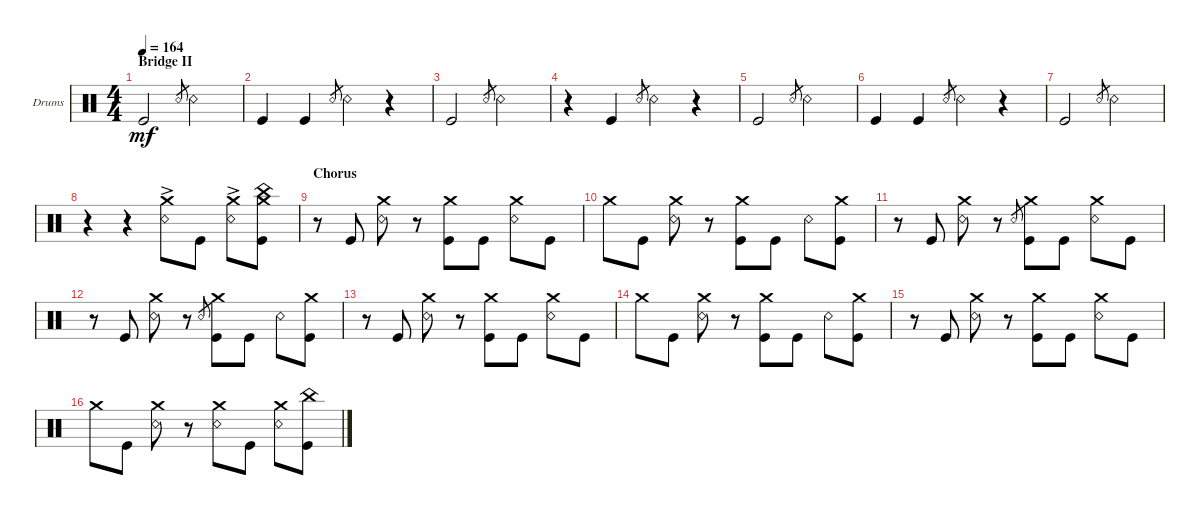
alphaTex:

\defaultSystemsLayout 4
\bracketExtendMode groupsimilarinstruments
\firstSystemTrackNameOrientation horizontal
\otherSystemsTrackNameOrientation horizontal
\track ("Drums" "Drums") {instrument percussion}
\staff {score}
\articulation defaults
\ts (4 4)
\section ("" "Bridge II")
\tempo 164
\clef neutral
\scale
0.333333
\ks c "Kick (hit)".2{dy mf} "Snare (rim shot)".8{gr} "Snare (rim shot)".2
|
\scale
0.333333 "Kick (hit)".4 "Kick (hit)".4 "Snare (rim shot)".8{gr} "Snare (rim shot)".4 r.4 |
\scale
0.333333 "Kick (hit)".2 "Snare (rim shot)".8{gr} "Snare (rim shot)".2 |
\scale
0.333333 r.4 "Kick (hit)".4 "Snare (rim shot)".8{gr} "Snare (rim shot)".4 r.4 |
\scale
0.333333 "Kick (hit)".2 "Snare (rim shot)".8{gr} "Snare (rim shot)".2 |
\scale
0.333333 "Kick (hit)".4 "Kick (hit)".4 "Snare (rim shot)".8{gr} "Snare (rim shot)".4 r.4 |
\scale
0.333333 "Kick (hit)".2 "Snare (rim shot)".8{gr} "Snare (rim shot)".2 |
\scale
0.333333 r.4 r.4 ("Snare (rim shot)"{ac} "Crash medium (hit)").8 "Kick (hit)".8 ("Snare (rim shot)"{ac} "Crash medium (hit)").8 ("Kick (hit)" "China (hit)" "Crash medium (hit)").8 |
\section ("" "Chorus")
\scale
0.333333 r.8 "Kick (hit)".8 ("Snare (rim shot)" "Crash medium (hit)").8 r.8 ("Kick (hit)" "Crash medium (hit)").8 "Kick (hit)".8 ("Snare (rim shot)" "Crash medium (hit)").8 "Kick (hit)".8 |
\scale
0.333333 "Crash medium (hit)".8 "Kick (hit)".8 ("Snare (rim shot)" "Crash medium (hit)").8 r.8 ("Kick (hit)" "Crash medium (hit)").8 "Kick (hit)".8 "Snare (rim shot)".8 ("Crash medium (hit)" "Kick (hit)").8 |
\scale
0.333333 r.8 "Kick (hit)".8 ("Snare (rim shot)" "Crash medium (hit)").8 r.8 "Snare (rim shot)".8{gr} ("Kick (hit)" "Crash medium (hit)").8 "Kick (hit)".8 ("Snare (rim shot)" "Crash medium (hit)").8 "Kick (hit)".8 |
\scale
0.333333 r.8 "Kick (hit)".8 ("Snare (rim shot)" "Crash medium (hit)").8 r.8 "Snare (rim shot)".8{gr} ("Kick (hit)" "Crash medium (hit)").8 "Kick (hit)".8 "Snare (rim shot)".8 ("Kick (hit)" "Crash medium (hit)").8 |
\scale
0.333333 r.8 "Kick (hit)".8 ("Snare (rim shot)" "Crash medium (hit)").8 r.8 ("Kick (hit)" "Crash medium (hit)").8 "Kick (hit)".8 ("Snare (rim shot)" "Crash medium (hit)").8 "Kick (hit)".8 |
\scale
0.333333 "Crash medium (hit)".8 "Kick (hit)".8 ("Snare (rim shot)" "Crash medium (hit)").8 r.8 ("Kick (hit)" "Crash medium (hit)").8 "Kick (hit)".8 "Snare (rim shot)".8 ("Crash medium (hit)" "Kick (hit)").8 |
\scale
0.333333 r.8 "Kick (hit)".8 ("Snare (rim shot)" "Crash medium (hit)").8 r.8 ("Kick (hit)" "Crash medium (hit)").8 "Kick (hit)".8 ("Snare (rim shot)" "Crash medium (hit)").8 "Kick (hit)".8 |
\scale
0.333333 "Crash medium (hit)".8 "Kick (hit)".8 ("Snare (rim shot)" "Crash medium (hit)").8 r.8 ("Snare (rim shot)" "Crash medium (hit)").8 "Kick (hit)".8 ("Snare (rim shot)" "Crash medium (hit)").8 ("Kick (hit)" "China (hit)").8
